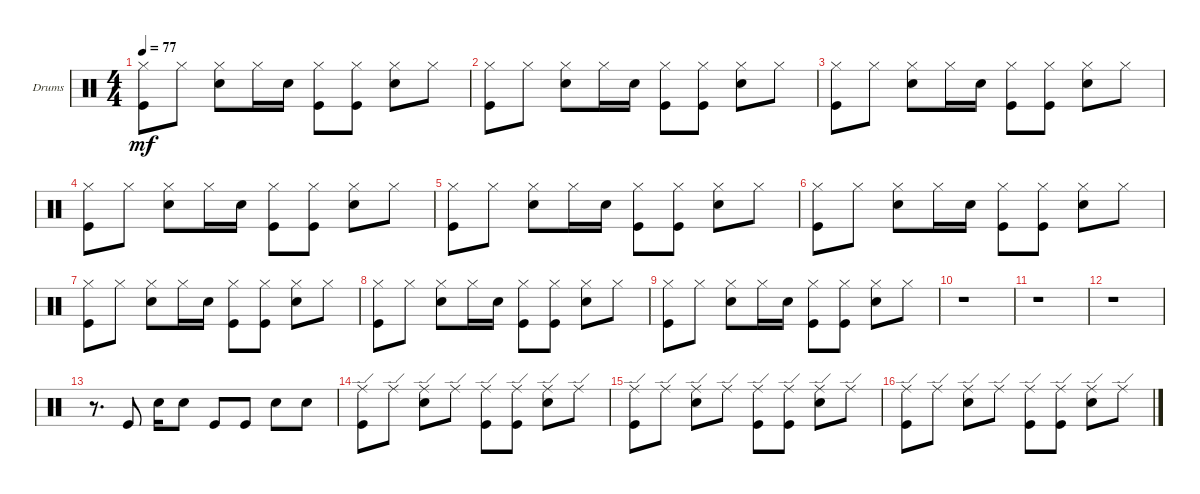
\defaultSystemsLayout 4
\bracketExtendMode groupsimilarinstruments
\firstSystemTrackNameOrientation horizontal
\otherSystemsTrackNameOrientation horizontal
\track ("Drumkit" "Drums") {instrument percussion}
\staff {score}
\articulation defaults
\ts (4 4)
\tempo 77
\clef neutral
\ks c
("Kick (hit)" "Hi-Hat (closed)").8{dy mf} "Hi-Hat (closed)".8 ("Snare (hit) 2" "Hi-Hat (closed)").8 "Hi-Hat (closed)".16 "Snare (hit) 2".16 ("Kick (hit)" "Hi-Hat (closed)").8 ("Kick (hit)" "Hi-Hat (closed)").8 ("Snare (hit) 2" "Hi-Hat (closed)").8 "Hi-Hat (closed)".8 |
("Kick (hit)" "Hi-Hat (closed)").8 "Hi-Hat (closed)".8 ("Snare (hit) 2" "Hi-Hat (closed)").8 "Hi-Hat (closed)".16 "Snare (hit) 2".16 ("Kick (hit)" "Hi-Hat (closed)").8 ("Kick (hit)" "Hi-Hat (closed)").8 ("Snare (hit) 2" "Hi-Hat (closed)").8 "Hi-Hat (closed)".8 |
("Kick (hit)" "Hi-Hat (closed)").8 "Hi-Hat (closed)".8 ("Snare (hit) 2" "Hi-Hat (closed)").8 "Hi-Hat (closed)".16 "Snare (hit) 2".16 ("Kick (hit)" "Hi-Hat (closed)").8 ("Kick (hit)" "Hi-Hat (closed)").8 ("Snare (hit) 2" "Hi-Hat (closed)").8 "Hi-Hat (closed)".8 |
("Kick (hit)" "Hi-Hat (closed)").8 "Hi-Hat (closed)".8 ("Snare (hit) 2" "Hi-Hat (closed)").8 "Hi-Hat (closed)".16 "Snare (hit) 2".16 ("Kick (hit)" "Hi-Hat (closed)").8 ("Kick (hit)" "Hi-Hat (closed)").8 ("Snare (hit) 2" "Hi-Hat (closed)").8 "Hi-Hat (closed)".8 |
("Kick (hit)" "Hi-Hat (closed)").8 "Hi-Hat (closed)".8 ("Snare (hit) 2" "Hi-Hat (closed)").8 "Hi-Hat (closed)".16 "Snare (hit) 2".16 ("Kick (hit)" "Hi-Hat (closed)").8 ("Kick (hit)" "Hi-Hat (closed)").8 ("Snare (hit) 2" "Hi-Hat (closed)").8 "Hi-Hat (closed)".8 |
("Kick (hit)" "Hi-Hat (closed)").8 "Hi-Hat (closed)".8 ("Snare (hit) 2" "Hi-Hat (closed)").8 "Hi-Hat (closed)".16 "Snare (hit) 2".16 ("Kick (hit)" "Hi-Hat (closed)").8 ("Kick (hit)" "Hi-Hat (closed)").8 ("Snare (hit) 2" "Hi-Hat (closed)").8 "Hi-Hat (closed)".8 |
("Kick (hit)" "Hi-Hat (closed)").8 "Hi-Hat (closed)".8 ("Snare (hit) 2" "Hi-Hat (closed)").8 "Hi-Hat (closed)".16 "Snare (hit) 2".16 ("Kick (hit)" "Hi-Hat (closed)").8 ("Kick (hit)" "Hi-Hat (closed)").8 ("Snare (hit) 2" "Hi-Hat (closed)").8 "Hi-Hat (closed)".8 |
("Kick (hit)" "Hi-Hat (closed)").8 "Hi-Hat (closed)".8 ("Snare (hit) 2" "Hi-Hat (closed)").8 "Hi-Hat (closed)".16 "Snare (hit) 2".16 ("Kick (hit)" "Hi-Hat (closed)").8 ("Kick (hit)" "Hi-Hat (closed)").8 ("Snare (hit) 2" "Hi-Hat (closed)").8 "Hi-Hat (closed)".8 |
("Kick (hit)" "Hi-Hat (closed)").8 "Hi-Hat (closed)".8 ("Snare (hit) 2" "Hi-Hat (closed)").8 "Hi-Hat (closed)".16 "Snare (hit) 2".16 ("Kick (hit)" "Hi-Hat (closed)").8 ("Kick (hit)" "Hi-Hat (closed)").8 ("Snare (hit) 2" "Hi-Hat (closed)").8 "Hi-Hat (closed)".8 |
r.1 |
r.1 |
r.1 |
r.8{d} "Kick (hit)".8 "Snare (hit) 2".16 "Snare (hit) 2".8 "Kick (hit)".8 "Kick (hit)".8 "Snare (hit) 2".8 "Snare (hit) 2".8 |
("Ride (edge)" "Kick (hit)").8 "Ride (edge)".8 ("Snare (hit) 2" "Ride (edge)").8 "Ride (edge)".8 ("Kick (hit)" "Ride (edge)").8 ("Kick (hit)" "Ride (edge)").8 ("Snare (hit) 2" "Ride (edge)").8 "Ride (edge)".8 |
("Ride (edge)" "Kick (hit)").8 "Ride (edge)".8 ("Snare (hit) 2" "Ride (edge)").8 "Ride (edge)".8 ("Kick (hit)" "Ride (edge)").8 ("Kick (hit)" "Ride (edge)").8 ("Snare (hit) 2" "Ride (edge)").8 "Ride (edge)".8 |
("Ride (edge)" "Kick (hit)").8 "Ride (edge)".8 ("Snare (hit) 2" "Ride (edge)").8 "Ride (edge)".8 ("Kick (hit)" "Ride (edge)").8 ("Kick (hit)" "Ride (edge)").8 ("Snare (hit) 2" "Ride (edge)").8 "Ride (edge)".8
